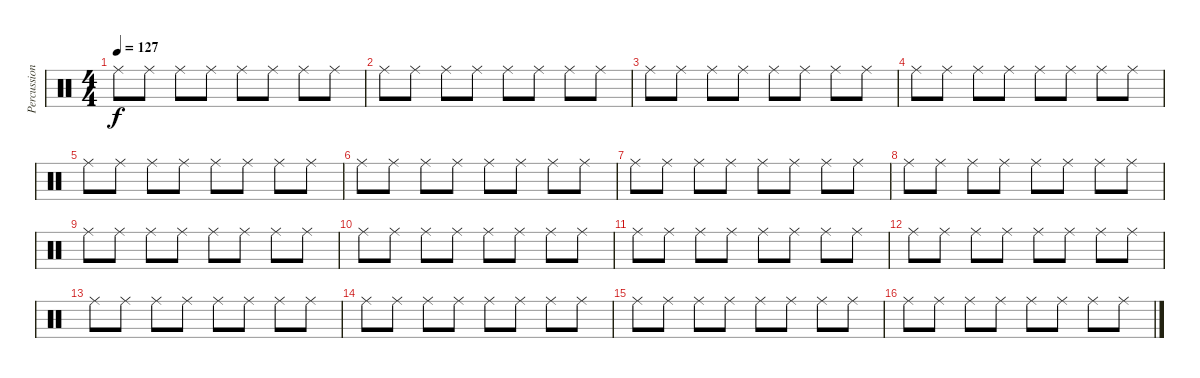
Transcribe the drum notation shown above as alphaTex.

\track ("Percussion" "Percussion") {instrument percussion}
\staff {score}
\articulation defaults
\ts (4 4)
\tempo 127
\clef neutral
\ks c "Ride (middle)".8{dy f} "Ride (middle)".8 "Ride (middle)".8 "Ride (middle)".8 "Ride (middle)".8 "Ride (middle)".8 "Ride (middle)".8 "Ride (middle)".8
|
"Ride (middle)".8 "Ride (middle)".8 "Ride (middle)".8 "Ride (middle)".8 "Ride (middle)".8 "Ride (middle)".8 "Ride (middle)".8 "Ride (middle)".8 |
"Ride (middle)".8 "Ride (middle)".8 "Ride (middle)".8 "Ride (middle)".8 "Ride (middle)".8 "Ride (middle)".8 "Ride (middle)".8 "Ride (middle)".8 |
"Ride (middle)".8 "Ride (middle)".8 "Ride (middle)".8 "Ride (middle)".8 "Ride (middle)".8 "Ride (middle)".8 "Ride (middle)".8 "Ride (middle)".8 |
"Ride (middle)".8 "Ride (middle)".8 "Ride (middle)".8 "Ride (middle)".8 "Ride (middle)".8 "Ride (middle)".8 "Ride (middle)".8 "Ride (middle)".8 |
"Ride (middle)".8 "Ride (middle)".8 "Ride (middle)".8 "Ride (middle)".8 "Ride (middle)".8 "Ride (middle)".8 "Ride (middle)".8 "Ride (middle)".8 |
"Ride (middle)".8 "Ride (middle)".8 "Ride (middle)".8 "Ride (middle)".8 "Ride (middle)".8 "Ride (middle)".8 "Ride (middle)".8 "Ride (middle)".8 |
"Ride (middle)".8 "Ride (middle)".8 "Ride (middle)".8 "Ride (middle)".8 "Ride (middle)".8 "Ride (middle)".8 "Ride (middle)".8 "Ride (middle)".8 |
"Ride (middle)".8 "Ride (middle)".8 "Ride (middle)".8 "Ride (middle)".8 "Ride (middle)".8 "Ride (middle)".8 "Ride (middle)".8 "Ride (middle)".8 |
"Ride (middle)".8 "Ride (middle)".8 "Ride (middle)".8 "Ride (middle)".8 "Ride (middle)".8 "Ride (middle)".8 "Ride (middle)".8 "Ride (middle)".8 |
"Ride (middle)".8 "Ride (middle)".8 "Ride (middle)".8 "Ride (middle)".8 "Ride (middle)".8 "Ride (middle)".8 "Ride (middle)".8 "Ride (middle)".8 |
"Ride (middle)".8 "Ride (middle)".8 "Ride (middle)".8 "Ride (middle)".8 "Ride (middle)".8 "Ride (middle)".8 "Ride (middle)".8 "Ride (middle)".8 |
"Ride (middle)".8 "Ride (middle)".8 "Ride (middle)".8 "Ride (middle)".8 "Ride (middle)".8 "Ride (middle)".8 "Ride (middle)".8 "Ride (middle)".8 |
"Ride (middle)".8 "Ride (middle)".8 "Ride (middle)".8 "Ride (middle)".8 "Ride (middle)".8 "Ride (middle)".8 "Ride (middle)".8 "Ride (middle)".8 |
"Ride (middle)".8 "Ride (middle)".8 "Ride (middle)".8 "Ride (middle)".8 "Ride (middle)".8 "Ride (middle)".8 "Ride (middle)".8 "Ride (middle)".8 |
"Ride (middle)".8 "Ride (middle)".8 "Ride (middle)".8 "Ride (middle)".8 "Ride (middle)".8 "Ride (middle)".8 "Ride (middle)".8 "Ride (middle)".8
